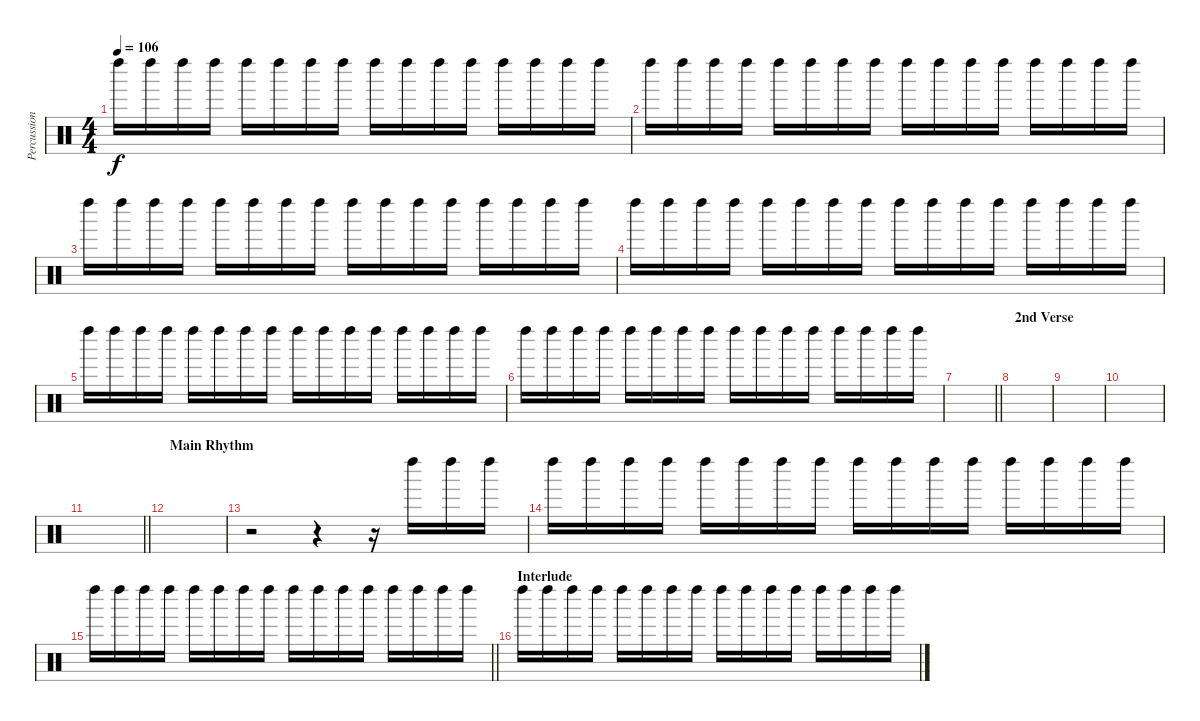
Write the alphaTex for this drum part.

\track ("Percussion 1" "Percussion") {instrument percussion}
\staff
\articulation defaults
\ts (4 4)
\tempo 106
\clef neutral
\ks c "Left Maraca (hit)".16{dy f} "Left Maraca (hit)".16 "Left Maraca (hit)".16 "Left Maraca (hit)".16 "Left Maraca (hit)".16 "Left Maraca (hit)".16 "Left Maraca (hit)".16 "Left Maraca (hit)".16 "Left Maraca (hit)".16 "Left Maraca (hit)".16 "Left Maraca (hit)".16 "Left Maraca (hit)".16 "Left Maraca (hit)".16 "Left Maraca (hit)".16 "Left Maraca (hit)".16 "Left Maraca (hit)".16
|
"Left Maraca (hit)".16 "Left Maraca (hit)".16 "Left Maraca (hit)".16 "Left Maraca (hit)".16 "Left Maraca (hit)".16 "Left Maraca (hit)".16 "Left Maraca (hit)".16 "Left Maraca (hit)".16 "Left Maraca (hit)".16 "Left Maraca (hit)".16 "Left Maraca (hit)".16 "Left Maraca (hit)".16 "Left Maraca (hit)".16 "Left Maraca (hit)".16 "Left Maraca (hit)".16 "Left Maraca (hit)".16 |
"Left Maraca (hit)".16 "Left Maraca (hit)".16 "Left Maraca (hit)".16 "Left Maraca (hit)".16 "Left Maraca (hit)".16 "Left Maraca (hit)".16 "Left Maraca (hit)".16 "Left Maraca (hit)".16 "Left Maraca (hit)".16 "Left Maraca (hit)".16 "Left Maraca (hit)".16 "Left Maraca (hit)".16 "Left Maraca (hit)".16 "Left Maraca (hit)".16 "Left Maraca (hit)".16 "Left Maraca (hit)".16 |
"Left Maraca (hit)".16 "Left Maraca (hit)".16 "Left Maraca (hit)".16 "Left Maraca (hit)".16 "Left Maraca (hit)".16 "Left Maraca (hit)".16 "Left Maraca (hit)".16 "Left Maraca (hit)".16 "Left Maraca (hit)".16 "Left Maraca (hit)".16 "Left Maraca (hit)".16 "Left Maraca (hit)".16 "Left Maraca (hit)".16 "Left Maraca (hit)".16 "Left Maraca (hit)".16 "Left Maraca (hit)".16 |
"Left Maraca (hit)".16 "Left Maraca (hit)".16 "Left Maraca (hit)".16 "Left Maraca (hit)".16 "Left Maraca (hit)".16 "Left Maraca (hit)".16 "Left Maraca (hit)".16 "Left Maraca (hit)".16 "Left Maraca (hit)".16 "Left Maraca (hit)".16 "Left Maraca (hit)".16 "Left Maraca (hit)".16 "Left Maraca (hit)".16 "Left Maraca (hit)".16 "Left Maraca (hit)".16 "Left Maraca (hit)".16 |
"Left Maraca (hit)".16 "Left Maraca (hit)".16 "Left Maraca (hit)".16 "Left Maraca (hit)".16 "Left Maraca (hit)".16 "Left Maraca (hit)".16 "Left Maraca (hit)".16 "Left Maraca (hit)".16 "Left Maraca (hit)".16 "Left Maraca (hit)".16 "Left Maraca (hit)".16 "Left Maraca (hit)".16 "Left Maraca (hit)".16 "Left Maraca (hit)".16 "Left Maraca (hit)".16 "Left Maraca (hit)".16 |
\barLineRight lightlight
|
\section ("" "2nd Verse")
|
|
|
\barLineRight lightlight
|
\section ("" "Main Rhythm ")
|
r.2 r.4 r.16 "Left Maraca (hit)".16 "Left Maraca (hit)".16 "Left Maraca (hit)".16 |
"Left Maraca (hit)".16 "Left Maraca (hit)".16 "Left Maraca (hit)".16 "Left Maraca (hit)".16 "Left Maraca (hit)".16 "Left Maraca (hit)".16 "Left Maraca (hit)".16 "Left Maraca (hit)".16 "Left Maraca (hit)".16 "Left Maraca (hit)".16 "Left Maraca (hit)".16 "Left Maraca (hit)".16 "Left Maraca (hit)".16 "Left Maraca (hit)".16 "Left Maraca (hit)".16 "Left Maraca (hit)".16 |
\barLineRight lightlight "Left Maraca (hit)".16 "Left Maraca (hit)".16 "Left Maraca (hit)".16 "Left Maraca (hit)".16 "Left Maraca (hit)".16 "Left Maraca (hit)".16 "Left Maraca (hit)".16 "Left Maraca (hit)".16 "Left Maraca (hit)".16 "Left Maraca (hit)".16 "Left Maraca (hit)".16 "Left Maraca (hit)".16 "Left Maraca (hit)".16 "Left Maraca (hit)".16 "Left Maraca (hit)".16 "Left Maraca (hit)".16
|
\section ("" "Interlude")
"Left Maraca (hit)".16 "Left Maraca (hit)".16 "Left Maraca (hit)".16 "Left Maraca (hit)".16 "Left Maraca (hit)".16 "Left Maraca (hit)".16 "Left Maraca (hit)".16 "Left Maraca (hit)".16 "Left Maraca (hit)".16 "Left Maraca (hit)".16 "Left Maraca (hit)".16 "Left Maraca (hit)".16 "Left Maraca (hit)".16 "Left Maraca (hit)".16 "Left Maraca (hit)".16 "Left Maraca (hit)".16
